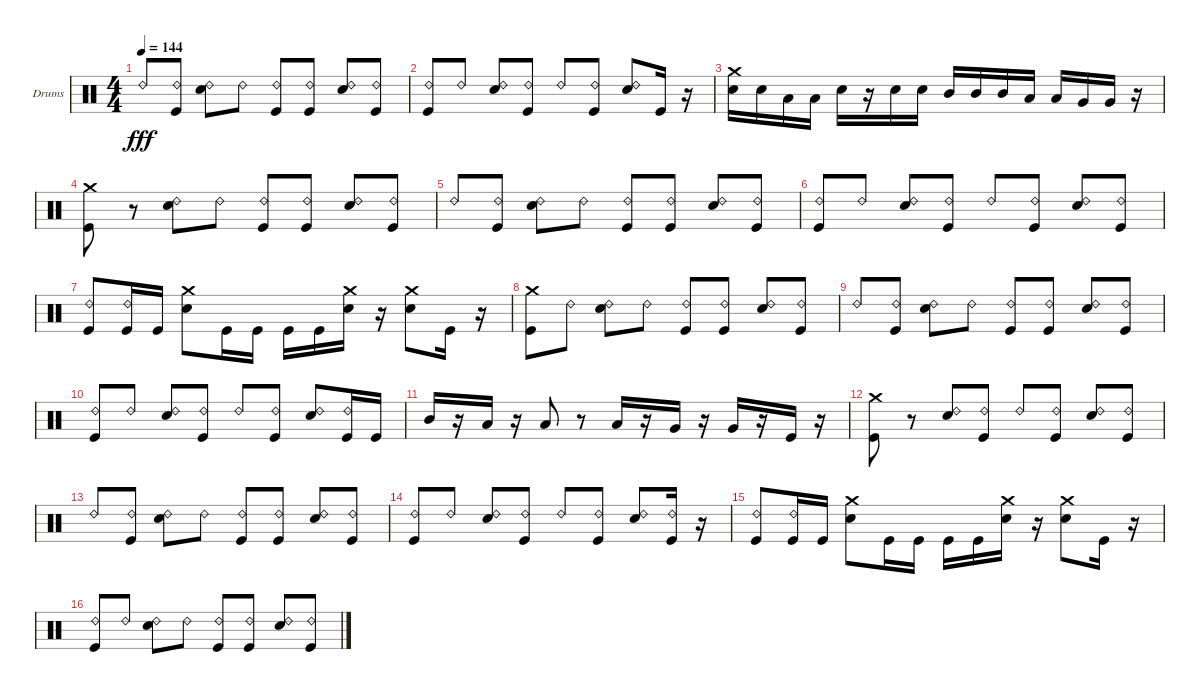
\bracketExtendMode groupsimilarinstruments
\firstSystemTrackNameOrientation horizontal
\otherSystemsTrackNameOrientation horizontal
\track ("Drumkit" "Drums") {instrument percussion}
\staff {score}
\articulation defaults
\ts (4 4)
\tempo 144
\clef neutral
\ks c "Ride (bell) 2".8{dy fff}
("Ride (bell) 2" "Kick (hit)").8 ("Ride (bell) 2" "Snare (hit) 2").8 "Ride (bell) 2".8 ("Ride (bell) 2" "Kick (hit)").8 ("Ride (bell) 2" "Kick (hit)").8 ("Ride (bell) 2" "Snare (hit) 2").8 ("Ride (bell) 2" "Kick (hit)").8 |
("Kick (hit)" "Ride (bell) 2").8 "Ride (bell) 2".8 ("Snare (hit) 2" "Ride (bell) 2").8 ("Kick (hit)" "Ride (bell) 2").8 "Ride (bell) 2".8 ("Kick (hit)" "Ride (bell) 2").8 ("Snare (hit) 2" "Ride (bell) 2").8 "Kick (hit)".16 r.16 |
("Snare (hit) 2" "Crash medium (hit)").16 "Snare (hit) 2".16 "Low Tom (hit)".16 "Low Tom (hit)".16 "Snare (hit) 2".16 r.16 "Snare (hit) 2".16 "Snare (hit) 2".16 "Mid Tom (hit)".16 "Mid Tom (hit)".16 "Mid Tom (hit)".16 "Low Tom (hit)".16 "Low Tom (hit)".16 "Very Low Tom (hit)".16 "Very Low Tom (hit)".16 r.16 |
("Kick (hit)" "Crash medium (hit)").8 r.8 ("Ride (bell) 2" "Snare (hit) 2").8 "Ride (bell) 2".8 ("Ride (bell) 2" "Kick (hit)").8 ("Ride (bell) 2" "Kick (hit)").8 ("Ride (bell) 2" "Snare (hit) 2").8 ("Ride (bell) 2" "Kick (hit)").8 |
"Ride (bell) 2".8 ("Ride (bell) 2" "Kick (hit)").8 ("Ride (bell) 2" "Snare (hit) 2").8 "Ride (bell) 2".8 ("Ride (bell) 2" "Kick (hit)").8 ("Ride (bell) 2" "Kick (hit)").8 ("Ride (bell) 2" "Snare (hit) 2").8 ("Ride (bell) 2" "Kick (hit)").8 |
("Ride (bell) 2" "Kick (hit)").8 "Ride (bell) 2".8 ("Ride (bell) 2" "Snare (hit) 2").8 ("Ride (bell) 2" "Kick (hit)").8 "Ride (bell) 2".8 ("Ride (bell) 2" "Kick (hit)").8 ("Ride (bell) 2" "Snare (hit) 2").8 ("Ride (bell) 2" "Kick (hit)").8 |
("Ride (bell) 2" "Kick (hit)").8 ("Ride (bell) 2" "Kick (hit)").16 "Kick (hit)".16 ("Crash medium (hit)" "Snare (hit) 2").8 "Kick (hit)".16 "Kick (hit)".16 "Kick (hit)".16 "Kick (hit)".16 ("Crash medium (hit)" "Snare (hit) 2").16 r.16 ("Crash medium (hit)" "Snare (hit) 2").8 "Kick (hit)".16 r.16 |
("Kick (hit)" "Crash medium (hit)").8 "Ride (bell) 2".8 ("Ride (bell) 2" "Snare (hit) 2").8 "Ride (bell) 2".8 ("Ride (bell) 2" "Kick (hit)").8 ("Ride (bell) 2" "Kick (hit)").8 ("Ride (bell) 2" "Snare (hit) 2").8 ("Ride (bell) 2" "Kick (hit)").8 |
"Ride (bell) 2".8 ("Ride (bell) 2" "Kick (hit)").8 ("Ride (bell) 2" "Snare (hit) 2").8 "Ride (bell) 2".8 ("Ride (bell) 2" "Kick (hit)").8 ("Ride (bell) 2" "Kick (hit)").8 ("Ride (bell) 2" "Snare (hit) 2").8 ("Ride (bell) 2" "Kick (hit)").8 |
("Kick (hit)" "Ride (bell) 2").8 "Ride (bell) 2".8 ("Snare (hit) 2" "Ride (bell) 2").8 ("Kick (hit)" "Ride (bell) 2").8 "Ride (bell) 2".8 ("Kick (hit)" "Ride (bell) 2").8 ("Snare (hit) 2" "Ride (bell) 2").8 ("Kick (hit)" "Ride (bell) 2").16 "Kick (hit)".16 |
"Mid Tom (hit)".16 r.16 "Low Tom (hit)".16 r.16 "Low Tom (hit)".8 r.8 "Low Tom (hit)".16 r.16 "Very Low Tom (hit)".16 r.16 "Very Low Tom (hit)".16 r.16 "Kick (hit)".16 r.16 |
("Kick (hit)" "Crash medium (hit)").8 r.8 ("Ride (bell) 2" "Snare (hit) 2").8 ("Ride (bell) 2" "Kick (hit)").8 "Ride (bell) 2".8 ("Ride (bell) 2" "Kick (hit)").8 ("Ride (bell) 2" "Snare (hit) 2").8 ("Ride (bell) 2" "Kick (hit)").8 |
"Ride (bell) 2".8 ("Ride (bell) 2" "Kick (hit)").8 ("Ride (bell) 2" "Snare (hit) 2").8 "Ride (bell) 2".8 ("Ride (bell) 2" "Kick (hit)").8 ("Ride (bell) 2" "Kick (hit)").8 ("Ride (bell) 2" "Snare (hit) 2").8 ("Ride (bell) 2" "Kick (hit)").8 |
("Ride (bell) 2" "Kick (hit)").8 "Ride (bell) 2".8 ("Ride (bell) 2" "Snare (hit) 2").8 ("Ride (bell) 2" "Kick (hit)").8 "Ride (bell) 2".8 ("Ride (bell) 2" "Kick (hit)").8 ("Ride (bell) 2" "Snare (hit) 2").8 ("Kick (hit)" "Ride (bell) 2").16 r.16 |
("Kick (hit)" "Ride (bell) 2").8 ("Ride (bell) 2" "Kick (hit)").16 "Kick (hit)".16 ("Crash medium (hit)" "Snare (hit) 2").8 "Kick (hit)".16 "Kick (hit)".16 "Kick (hit)".16 "Kick (hit)".16 ("Crash medium (hit)" "Snare (hit) 2").16 r.16 ("Crash medium (hit)" "Snare (hit) 2").8 "Kick (hit)".16 r.16 |
("Ride (bell) 2" "Kick (hit)").8 "Ride (bell) 2".8 ("Ride (bell) 2" "Snare (hit) 2").8 "Ride (bell) 2".8 ("Ride (bell) 2" "Kick (hit)").8 ("Ride (bell) 2" "Kick (hit)").8 ("Ride (bell) 2" "Snare (hit) 2").8 ("Ride (bell) 2" "Kick (hit)").8
